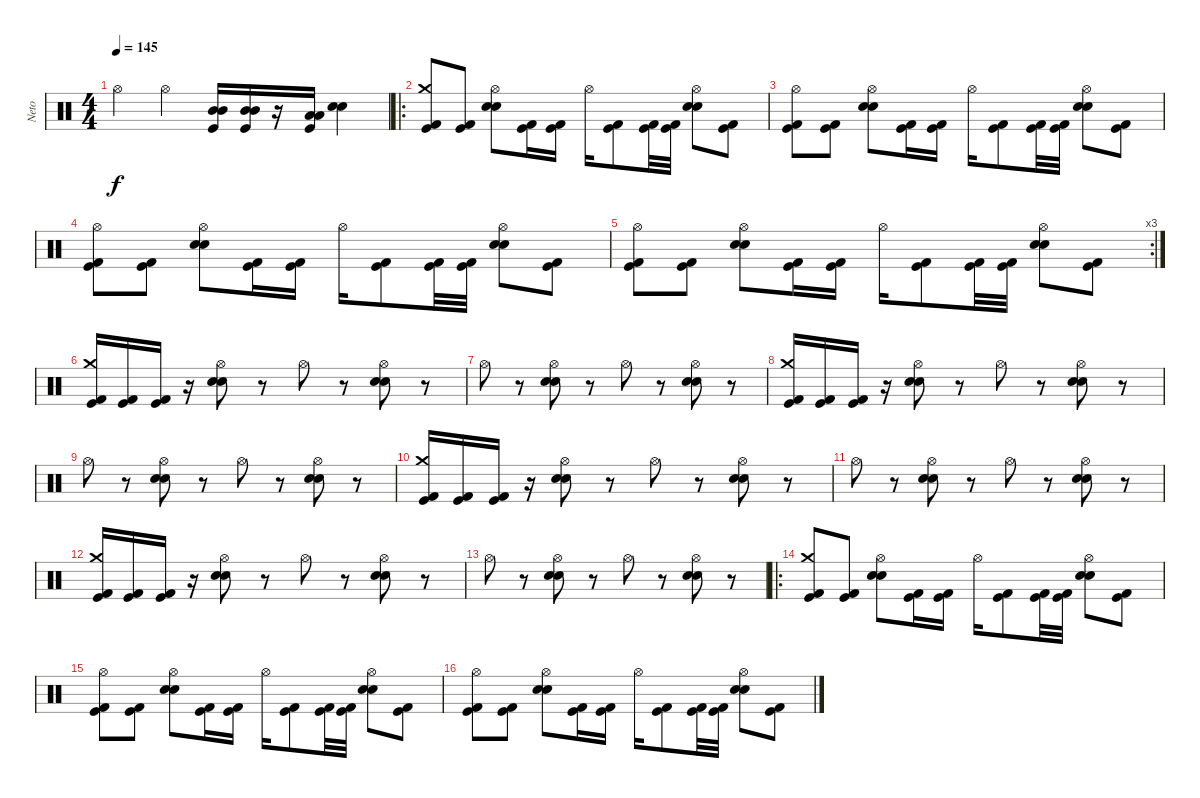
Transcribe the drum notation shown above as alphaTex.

\track ("Neto" "Neto") {instrument percussion}
\staff {score}
\articulation defaults
\ts (4 4)
\tempo 145
\clef neutral
\ks c "Hi-Hat (open)".4{dy f} "Hi-Hat (open)".4
("Kick (hit)" "Mid Tom (hit)" "Mid Tom (hit)").16 ("Kick (hit)" "Mid Tom (hit)" "Mid Tom (hit)").16 r.16 ("Kick (hit)" "Low Tom (hit)" "Low Tom (hit)").16 ("Snare (hit) 2" "Snare (hit) 2").4 |
\ro
("Crash medium (hit)" "Kick (hit)" "Kick (hit) 2").8 ("Kick (hit)" "Kick (hit) 2").8 ("Hi-Hat (open)" "Snare (hit) 2" "Snare (hit) 2").8 ("Kick (hit)" "Kick (hit) 2").16 ("Kick (hit)" "Kick (hit) 2").16 "Hi-Hat (open)".16 ("Kick (hit)" "Kick (hit) 2").8 ("Kick (hit)" "Kick (hit) 2").32 ("Kick (hit)" "Kick (hit) 2").32 ("Hi-Hat (open)" "Snare (hit) 2" "Snare (hit) 2").8 ("Kick (hit)" "Kick (hit) 2").8 |
("Hi-Hat (open)" "Kick (hit)" "Kick (hit) 2").8 ("Kick (hit)" "Kick (hit) 2").8 ("Hi-Hat (open)" "Snare (hit) 2" "Snare (hit) 2").8 ("Kick (hit)" "Kick (hit) 2").16 ("Kick (hit)" "Kick (hit) 2").16 "Hi-Hat (open)".16 ("Kick (hit)" "Kick (hit) 2").8 ("Kick (hit)" "Kick (hit) 2").32 ("Kick (hit)" "Kick (hit) 2").32 ("Hi-Hat (open)" "Snare (hit) 2" "Snare (hit) 2").8 ("Kick (hit)" "Kick (hit) 2").8 |
("Hi-Hat (open)" "Kick (hit)" "Kick (hit) 2").8 ("Kick (hit)" "Kick (hit) 2").8 ("Hi-Hat (open)" "Snare (hit) 2" "Snare (hit) 2").8 ("Kick (hit)" "Kick (hit) 2").16 ("Kick (hit)" "Kick (hit) 2").16 "Hi-Hat (open)".16 ("Kick (hit)" "Kick (hit) 2").8 ("Kick (hit)" "Kick (hit) 2").32 ("Kick (hit)" "Kick (hit) 2").32 ("Hi-Hat (open)" "Snare (hit) 2" "Snare (hit) 2").8 ("Kick (hit)" "Kick (hit) 2").8 |
\rc 3
("Hi-Hat (open)" "Kick (hit)" "Kick (hit) 2").8 ("Kick (hit)" "Kick (hit) 2").8 ("Hi-Hat (open)" "Snare (hit) 2" "Snare (hit) 2").8 ("Kick (hit)" "Kick (hit) 2").16 ("Kick (hit)" "Kick (hit) 2").16 "Hi-Hat (open)".16 ("Kick (hit)" "Kick (hit) 2").8 ("Kick (hit)" "Kick (hit) 2").32 ("Kick (hit)" "Kick (hit) 2").32 ("Hi-Hat (open)" "Snare (hit) 2" "Snare (hit) 2").8 ("Kick (hit)" "Kick (hit) 2").8 |
("Crash medium (hit)" "Kick (hit)" "Kick (hit) 2").16 ("Kick (hit)" "Kick (hit) 2").16 ("Kick (hit)" "Kick (hit) 2").16 r.16 ("Hi-Hat (open)" "Snare (hit) 2" "Snare (hit) 2").8 r.8 "Hi-Hat (open)".8 r.8 ("Hi-Hat (open)" "Snare (hit) 2" "Snare (hit) 2").8 r.8 |
"Hi-Hat (open)".8 r.8 ("Hi-Hat (open)" "Snare (hit) 2" "Snare (hit) 2").8 r.8 "Hi-Hat (open)".8 r.8 ("Hi-Hat (open)" "Snare (hit) 2" "Snare (hit) 2").8 r.8 |
("Crash medium (hit)" "Kick (hit)" "Kick (hit) 2").16 ("Kick (hit)" "Kick (hit) 2").16 ("Kick (hit)" "Kick (hit) 2").16 r.16 ("Hi-Hat (open)" "Snare (hit) 2" "Snare (hit) 2").8 r.8 "Hi-Hat (open)".8 r.8 ("Hi-Hat (open)" "Snare (hit) 2" "Snare (hit) 2").8 r.8 |
"Hi-Hat (open)".8 r.8 ("Hi-Hat (open)" "Snare (hit) 2" "Snare (hit) 2").8 r.8 "Hi-Hat (open)".8 r.8 ("Hi-Hat (open)" "Snare (hit) 2" "Snare (hit) 2").8 r.8 |
("Crash medium (hit)" "Kick (hit)" "Kick (hit) 2").16 ("Kick (hit)" "Kick (hit) 2").16 ("Kick (hit)" "Kick (hit) 2").16 r.16 ("Hi-Hat (open)" "Snare (hit) 2" "Snare (hit) 2").8 r.8 "Hi-Hat (open)".8 r.8 ("Hi-Hat (open)" "Snare (hit) 2" "Snare (hit) 2").8 r.8 |
"Hi-Hat (open)".8 r.8 ("Hi-Hat (open)" "Snare (hit) 2" "Snare (hit) 2").8 r.8 "Hi-Hat (open)".8 r.8 ("Hi-Hat (open)" "Snare (hit) 2" "Snare (hit) 2").8 r.8 |
("Crash medium (hit)" "Kick (hit)" "Kick (hit) 2").16 ("Kick (hit)" "Kick (hit) 2").16 ("Kick (hit)" "Kick (hit) 2").16 r.16 ("Hi-Hat (open)" "Snare (hit) 2" "Snare (hit) 2").8 r.8 "Hi-Hat (open)".8 r.8 ("Hi-Hat (open)" "Snare (hit) 2" "Snare (hit) 2").8 r.8 |
"Hi-Hat (open)".8 r.8 ("Hi-Hat (open)" "Snare (hit) 2" "Snare (hit) 2").8 r.8 "Hi-Hat (open)".8 r.8 ("Hi-Hat (open)" "Snare (hit) 2" "Snare (hit) 2").8 r.8 |
\ro
("Crash medium (hit)" "Kick (hit)" "Kick (hit) 2").8 ("Kick (hit)" "Kick (hit) 2").8 ("Hi-Hat (open)" "Snare (hit) 2" "Snare (hit) 2").8 ("Kick (hit)" "Kick (hit) 2").16 ("Kick (hit)" "Kick (hit) 2").16 "Hi-Hat (open)".16 ("Kick (hit)" "Kick (hit) 2").8 ("Kick (hit)" "Kick (hit) 2").32 ("Kick (hit)" "Kick (hit) 2").32 ("Hi-Hat (open)" "Snare (hit) 2" "Snare (hit) 2").8 ("Kick (hit)" "Kick (hit) 2").8 |
("Hi-Hat (open)" "Kick (hit)" "Kick (hit) 2").8 ("Kick (hit)" "Kick (hit) 2").8 ("Hi-Hat (open)" "Snare (hit) 2" "Snare (hit) 2").8 ("Kick (hit)" "Kick (hit) 2").16 ("Kick (hit)" "Kick (hit) 2").16 "Hi-Hat (open)".16 ("Kick (hit)" "Kick (hit) 2").8 ("Kick (hit)" "Kick (hit) 2").32 ("Kick (hit)" "Kick (hit) 2").32 ("Hi-Hat (open)" "Snare (hit) 2" "Snare (hit) 2").8 ("Kick (hit)" "Kick (hit) 2").8 |
("Hi-Hat (open)" "Kick (hit)" "Kick (hit) 2").8 ("Kick (hit)" "Kick (hit) 2").8 ("Hi-Hat (open)" "Snare (hit) 2" "Snare (hit) 2").8 ("Kick (hit)" "Kick (hit) 2").16 ("Kick (hit)" "Kick (hit) 2").16 "Hi-Hat (open)".16 ("Kick (hit)" "Kick (hit) 2").8 ("Kick (hit)" "Kick (hit) 2").32 ("Kick (hit)" "Kick (hit) 2").32 ("Hi-Hat (open)" "Snare (hit) 2" "Snare (hit) 2").8 ("Kick (hit)" "Kick (hit) 2").8
